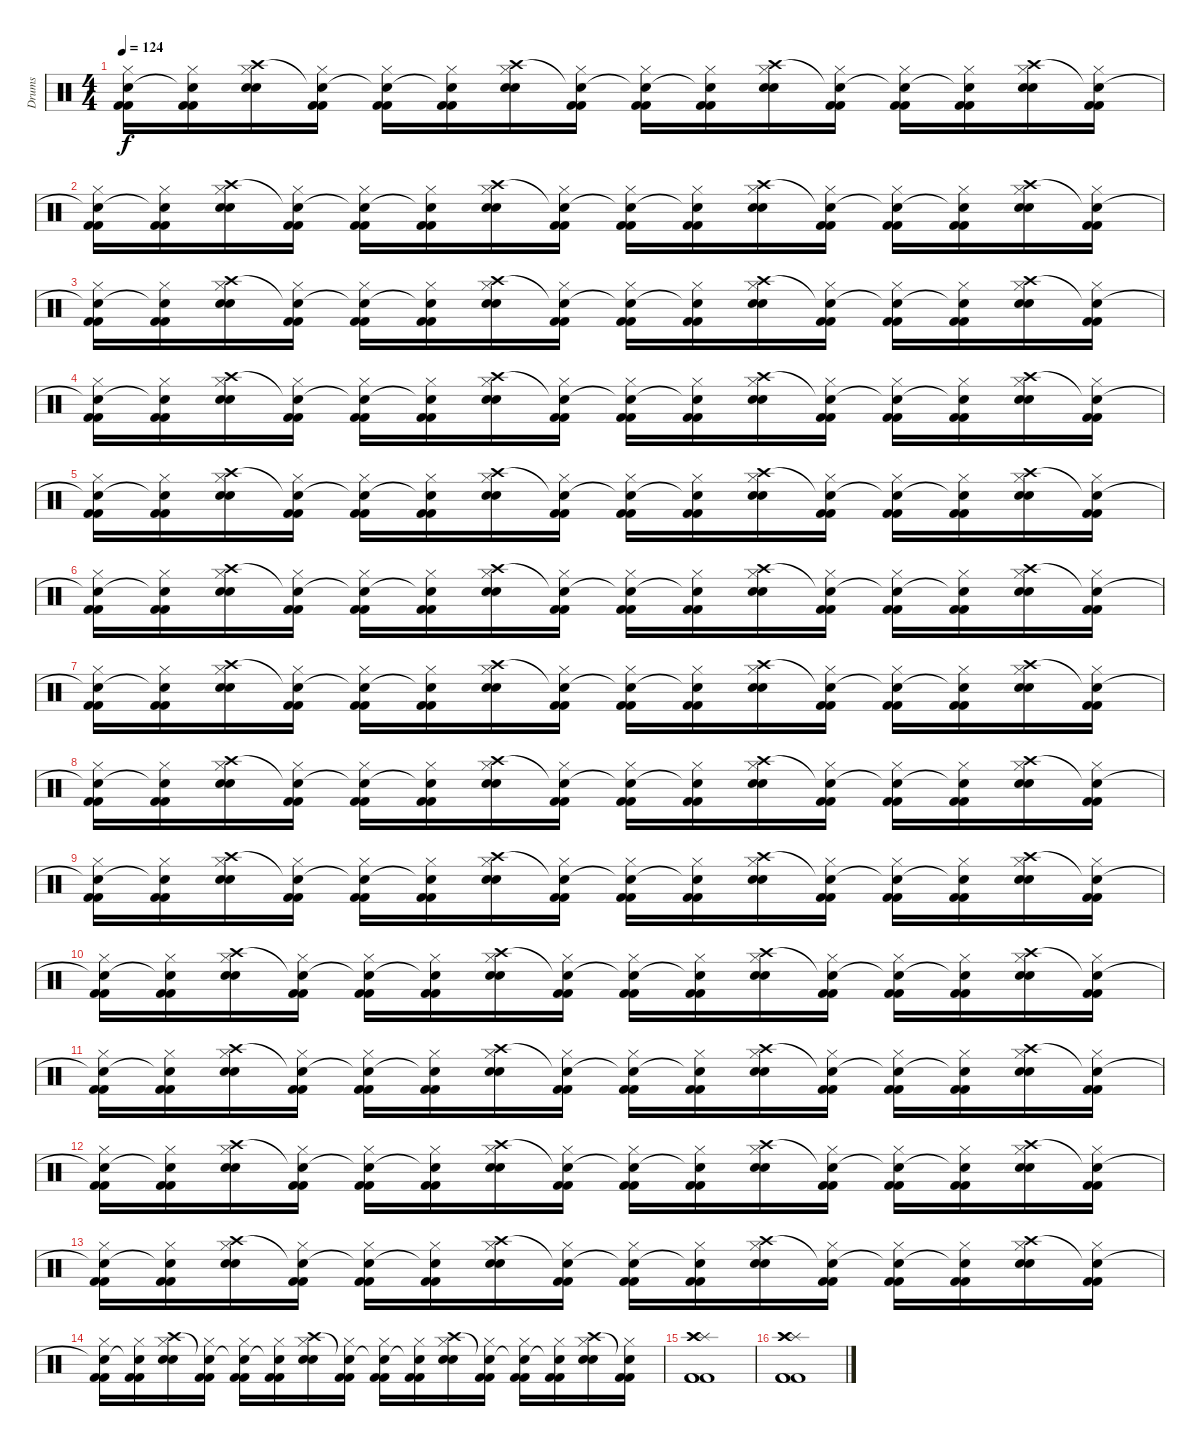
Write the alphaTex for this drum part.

\track ("Drums" "Drums") {instrument percussion}
\staff {score}
\articulation defaults
\ts (4 4)
\tempo 124
\clef neutral
\ks c
("Snare (hit)"{t} "Hi-Hat (closed)" "Kick (hit) 2" "Kick (hit) 2").16{dy f} ("Snare (hit)"{t} "Hi-Hat (closed)" "Kick (hit) 2" "Kick (hit) 2").16 ("Crash high (hit)" "Hi-Hat (closed)" "Snare (hit) 2" "Snare (hit) 2").16 ("Snare (hit)"{t} "Hi-Hat (closed)" "Kick (hit) 2" "Kick (hit) 2").16 ("Snare (hit)"{t} "Hi-Hat (closed)" "Kick (hit) 2" "Kick (hit) 2").16 ("Snare (hit)"{t} "Hi-Hat (closed)" "Kick (hit) 2" "Kick (hit) 2").16 ("Crash high (hit)" "Hi-Hat (closed)" "Snare (hit) 2" "Snare (hit) 2").16 ("Snare (hit)"{t} "Hi-Hat (closed)" "Kick (hit) 2" "Kick (hit) 2").16 ("Snare (hit)"{t} "Hi-Hat (closed)" "Kick (hit) 2" "Kick (hit) 2").16 ("Snare (hit)"{t} "Hi-Hat (closed)" "Kick (hit) 2" "Kick (hit) 2").16 ("Crash high (hit)" "Hi-Hat (closed)" "Snare (hit) 2" "Snare (hit) 2").16 ("Snare (hit)"{t} "Hi-Hat (closed)" "Kick (hit) 2" "Kick (hit) 2").16 ("Snare (hit)"{t} "Hi-Hat (closed)" "Kick (hit) 2" "Kick (hit) 2").16 ("Snare (hit)"{t} "Hi-Hat (closed)" "Kick (hit) 2" "Kick (hit) 2").16 ("Crash high (hit)" "Hi-Hat (closed)" "Snare (hit) 2" "Snare (hit) 2").16 ("Snare (hit)"{t} "Hi-Hat (closed)" "Kick (hit) 2" "Kick (hit) 2").16 |
("Snare (hit)"{t} "Hi-Hat (closed)" "Kick (hit) 2" "Kick (hit) 2").16 ("Snare (hit)"{t} "Hi-Hat (closed)" "Kick (hit) 2" "Kick (hit) 2").16 ("Crash high (hit)" "Hi-Hat (closed)" "Snare (hit) 2" "Snare (hit) 2").16 ("Snare (hit)"{t} "Hi-Hat (closed)" "Kick (hit) 2" "Kick (hit) 2").16 ("Snare (hit)"{t} "Hi-Hat (closed)" "Kick (hit) 2" "Kick (hit) 2").16 ("Snare (hit)"{t} "Hi-Hat (closed)" "Kick (hit) 2" "Kick (hit) 2").16 ("Crash high (hit)" "Hi-Hat (closed)" "Snare (hit) 2" "Snare (hit) 2").16 ("Snare (hit)"{t} "Hi-Hat (closed)" "Kick (hit) 2" "Kick (hit) 2").16 ("Snare (hit)"{t} "Hi-Hat (closed)" "Kick (hit) 2" "Kick (hit) 2").16 ("Snare (hit)"{t} "Hi-Hat (closed)" "Kick (hit) 2" "Kick (hit) 2").16 ("Crash high (hit)" "Hi-Hat (closed)" "Snare (hit) 2" "Snare (hit) 2").16 ("Snare (hit)"{t} "Hi-Hat (closed)" "Kick (hit) 2" "Kick (hit) 2").16 ("Snare (hit)"{t} "Hi-Hat (closed)" "Kick (hit) 2" "Kick (hit) 2").16 ("Snare (hit)"{t} "Hi-Hat (closed)" "Kick (hit) 2" "Kick (hit) 2").16 ("Crash high (hit)" "Hi-Hat (closed)" "Snare (hit) 2" "Snare (hit) 2").16 ("Snare (hit)"{t} "Hi-Hat (closed)" "Kick (hit) 2" "Kick (hit) 2").16 |
("Snare (hit)"{t} "Hi-Hat (closed)" "Kick (hit) 2" "Kick (hit) 2").16 ("Snare (hit)"{t} "Hi-Hat (closed)" "Kick (hit) 2" "Kick (hit) 2").16 ("Crash high (hit)" "Hi-Hat (closed)" "Snare (hit) 2" "Snare (hit) 2").16 ("Snare (hit)"{t} "Hi-Hat (closed)" "Kick (hit) 2" "Kick (hit) 2").16 ("Snare (hit)"{t} "Hi-Hat (closed)" "Kick (hit) 2" "Kick (hit) 2").16 ("Snare (hit)"{t} "Hi-Hat (closed)" "Kick (hit) 2" "Kick (hit) 2").16 ("Crash high (hit)" "Hi-Hat (closed)" "Snare (hit) 2" "Snare (hit) 2").16 ("Snare (hit)"{t} "Hi-Hat (closed)" "Kick (hit) 2" "Kick (hit) 2").16 ("Snare (hit)"{t} "Hi-Hat (closed)" "Kick (hit) 2" "Kick (hit) 2").16 ("Snare (hit)"{t} "Hi-Hat (closed)" "Kick (hit) 2" "Kick (hit) 2").16 ("Crash high (hit)" "Hi-Hat (closed)" "Snare (hit) 2" "Snare (hit) 2").16 ("Snare (hit)"{t} "Hi-Hat (closed)" "Kick (hit) 2" "Kick (hit) 2").16 ("Snare (hit)"{t} "Hi-Hat (closed)" "Kick (hit) 2" "Kick (hit) 2").16 ("Snare (hit)"{t} "Hi-Hat (closed)" "Kick (hit) 2" "Kick (hit) 2").16 ("Crash high (hit)" "Hi-Hat (closed)" "Snare (hit) 2" "Snare (hit) 2").16 ("Snare (hit)"{t} "Hi-Hat (closed)" "Kick (hit) 2" "Kick (hit) 2").16 |
("Snare (hit)"{t} "Hi-Hat (closed)" "Kick (hit) 2" "Kick (hit) 2").16 ("Snare (hit)"{t} "Hi-Hat (closed)" "Kick (hit) 2" "Kick (hit) 2").16 ("Crash high (hit)" "Hi-Hat (closed)" "Snare (hit) 2" "Snare (hit) 2").16 ("Snare (hit)"{t} "Hi-Hat (closed)" "Kick (hit) 2" "Kick (hit) 2").16 ("Snare (hit)"{t} "Hi-Hat (closed)" "Kick (hit) 2" "Kick (hit) 2").16 ("Snare (hit)"{t} "Hi-Hat (closed)" "Kick (hit) 2" "Kick (hit) 2").16 ("Crash high (hit)" "Hi-Hat (closed)" "Snare (hit) 2" "Snare (hit) 2").16 ("Snare (hit)"{t} "Hi-Hat (closed)" "Kick (hit) 2" "Kick (hit) 2").16 ("Snare (hit)"{t} "Hi-Hat (closed)" "Kick (hit) 2" "Kick (hit) 2").16 ("Snare (hit)"{t} "Hi-Hat (closed)" "Kick (hit) 2" "Kick (hit) 2").16 ("Crash high (hit)" "Hi-Hat (closed)" "Snare (hit) 2" "Snare (hit) 2").16 ("Snare (hit)"{t} "Hi-Hat (closed)" "Kick (hit) 2" "Kick (hit) 2").16 ("Snare (hit)"{t} "Hi-Hat (closed)" "Kick (hit) 2" "Kick (hit) 2").16 ("Snare (hit)"{t} "Hi-Hat (closed)" "Kick (hit) 2" "Kick (hit) 2").16 ("Crash high (hit)" "Hi-Hat (closed)" "Snare (hit) 2" "Snare (hit) 2").16 ("Snare (hit)"{t} "Hi-Hat (closed)" "Kick (hit) 2" "Kick (hit) 2").16 |
("Snare (hit)"{t} "Hi-Hat (closed)" "Kick (hit) 2" "Kick (hit) 2").16 ("Snare (hit)"{t} "Hi-Hat (closed)" "Kick (hit) 2" "Kick (hit) 2").16 ("Crash high (hit)" "Hi-Hat (closed)" "Snare (hit) 2" "Snare (hit) 2").16 ("Snare (hit)"{t} "Hi-Hat (closed)" "Kick (hit) 2" "Kick (hit) 2").16 ("Snare (hit)"{t} "Hi-Hat (closed)" "Kick (hit) 2" "Kick (hit) 2").16 ("Snare (hit)"{t} "Hi-Hat (closed)" "Kick (hit) 2" "Kick (hit) 2").16 ("Crash high (hit)" "Hi-Hat (closed)" "Snare (hit) 2" "Snare (hit) 2").16 ("Snare (hit)"{t} "Hi-Hat (closed)" "Kick (hit) 2" "Kick (hit) 2").16 ("Snare (hit)"{t} "Hi-Hat (closed)" "Kick (hit) 2" "Kick (hit) 2").16 ("Snare (hit)"{t} "Hi-Hat (closed)" "Kick (hit) 2" "Kick (hit) 2").16 ("Crash high (hit)" "Hi-Hat (closed)" "Snare (hit) 2" "Snare (hit) 2").16 ("Snare (hit)"{t} "Hi-Hat (closed)" "Kick (hit) 2" "Kick (hit) 2").16 ("Snare (hit)"{t} "Hi-Hat (closed)" "Kick (hit) 2" "Kick (hit) 2").16 ("Snare (hit)"{t} "Hi-Hat (closed)" "Kick (hit) 2" "Kick (hit) 2").16 ("Crash high (hit)" "Hi-Hat (closed)" "Snare (hit) 2" "Snare (hit) 2").16 ("Snare (hit)"{t} "Hi-Hat (closed)" "Kick (hit) 2" "Kick (hit) 2").16 |
("Snare (hit)"{t} "Hi-Hat (closed)" "Kick (hit) 2" "Kick (hit) 2").16 ("Snare (hit)"{t} "Hi-Hat (closed)" "Kick (hit) 2" "Kick (hit) 2").16 ("Crash high (hit)" "Hi-Hat (closed)" "Snare (hit) 2" "Snare (hit) 2").16 ("Snare (hit)"{t} "Hi-Hat (closed)" "Kick (hit) 2" "Kick (hit) 2").16 ("Snare (hit)"{t} "Hi-Hat (closed)" "Kick (hit) 2" "Kick (hit) 2").16 ("Snare (hit)"{t} "Hi-Hat (closed)" "Kick (hit) 2" "Kick (hit) 2").16 ("Crash high (hit)" "Hi-Hat (closed)" "Snare (hit) 2" "Snare (hit) 2").16 ("Snare (hit)"{t} "Hi-Hat (closed)" "Kick (hit) 2" "Kick (hit) 2").16 ("Snare (hit)"{t} "Hi-Hat (closed)" "Kick (hit) 2" "Kick (hit) 2").16 ("Snare (hit)"{t} "Hi-Hat (closed)" "Kick (hit) 2" "Kick (hit) 2").16 ("Crash high (hit)" "Hi-Hat (closed)" "Snare (hit) 2" "Snare (hit) 2").16 ("Snare (hit)"{t} "Hi-Hat (closed)" "Kick (hit) 2" "Kick (hit) 2").16 ("Snare (hit)"{t} "Hi-Hat (closed)" "Kick (hit) 2" "Kick (hit) 2").16 ("Snare (hit)"{t} "Hi-Hat (closed)" "Kick (hit) 2" "Kick (hit) 2").16 ("Crash high (hit)" "Hi-Hat (closed)" "Snare (hit) 2" "Snare (hit) 2").16 ("Snare (hit)"{t} "Hi-Hat (closed)" "Kick (hit) 2" "Kick (hit) 2").16 |
("Snare (hit)"{t} "Hi-Hat (closed)" "Kick (hit) 2" "Kick (hit) 2").16 ("Snare (hit)"{t} "Hi-Hat (closed)" "Kick (hit) 2" "Kick (hit) 2").16 ("Crash high (hit)" "Hi-Hat (closed)" "Snare (hit) 2" "Snare (hit) 2").16 ("Snare (hit)"{t} "Hi-Hat (closed)" "Kick (hit) 2" "Kick (hit) 2").16 ("Snare (hit)"{t} "Hi-Hat (closed)" "Kick (hit) 2" "Kick (hit) 2").16 ("Snare (hit)"{t} "Hi-Hat (closed)" "Kick (hit) 2" "Kick (hit) 2").16 ("Crash high (hit)" "Hi-Hat (closed)" "Snare (hit) 2" "Snare (hit) 2").16 ("Snare (hit)"{t} "Hi-Hat (closed)" "Kick (hit) 2" "Kick (hit) 2").16 ("Snare (hit)"{t} "Hi-Hat (closed)" "Kick (hit) 2" "Kick (hit) 2").16 ("Snare (hit)"{t} "Hi-Hat (closed)" "Kick (hit) 2" "Kick (hit) 2").16 ("Crash high (hit)" "Hi-Hat (closed)" "Snare (hit) 2" "Snare (hit) 2").16 ("Snare (hit)"{t} "Hi-Hat (closed)" "Kick (hit) 2" "Kick (hit) 2").16 ("Snare (hit)"{t} "Hi-Hat (closed)" "Kick (hit) 2" "Kick (hit) 2").16 ("Snare (hit)"{t} "Hi-Hat (closed)" "Kick (hit) 2" "Kick (hit) 2").16 ("Crash high (hit)" "Hi-Hat (closed)" "Snare (hit) 2" "Snare (hit) 2").16 ("Snare (hit)"{t} "Hi-Hat (closed)" "Kick (hit) 2" "Kick (hit) 2").16 |
("Snare (hit)"{t} "Hi-Hat (closed)" "Kick (hit) 2" "Kick (hit) 2").16 ("Snare (hit)"{t} "Hi-Hat (closed)" "Kick (hit) 2" "Kick (hit) 2").16 ("Crash high (hit)" "Hi-Hat (closed)" "Snare (hit) 2" "Snare (hit) 2").16 ("Snare (hit)"{t} "Hi-Hat (closed)" "Kick (hit) 2" "Kick (hit) 2").16 ("Snare (hit)"{t} "Hi-Hat (closed)" "Kick (hit) 2" "Kick (hit) 2").16 ("Snare (hit)"{t} "Hi-Hat (closed)" "Kick (hit) 2" "Kick (hit) 2").16 ("Crash high (hit)" "Hi-Hat (closed)" "Snare (hit) 2" "Snare (hit) 2").16 ("Snare (hit)"{t} "Hi-Hat (closed)" "Kick (hit) 2" "Kick (hit) 2").16 ("Snare (hit)"{t} "Hi-Hat (closed)" "Kick (hit) 2" "Kick (hit) 2").16 ("Snare (hit)"{t} "Hi-Hat (closed)" "Kick (hit) 2" "Kick (hit) 2").16 ("Crash high (hit)" "Hi-Hat (closed)" "Snare (hit) 2" "Snare (hit) 2").16 ("Snare (hit)"{t} "Hi-Hat (closed)" "Kick (hit) 2" "Kick (hit) 2").16 ("Snare (hit)"{t} "Hi-Hat (closed)" "Kick (hit) 2" "Kick (hit) 2").16 ("Snare (hit)"{t} "Hi-Hat (closed)" "Kick (hit) 2" "Kick (hit) 2").16 ("Crash high (hit)" "Hi-Hat (closed)" "Snare (hit) 2" "Snare (hit) 2").16 ("Snare (hit)"{t} "Hi-Hat (closed)" "Kick (hit) 2" "Kick (hit) 2").16 |
("Snare (hit)"{t} "Hi-Hat (closed)" "Kick (hit) 2" "Kick (hit) 2").16 ("Snare (hit)"{t} "Hi-Hat (closed)" "Kick (hit) 2" "Kick (hit) 2").16 ("Crash high (hit)" "Hi-Hat (closed)" "Snare (hit) 2" "Snare (hit) 2").16 ("Snare (hit)"{t} "Hi-Hat (closed)" "Kick (hit) 2" "Kick (hit) 2").16 ("Snare (hit)"{t} "Hi-Hat (closed)" "Kick (hit) 2" "Kick (hit) 2").16 ("Snare (hit)"{t} "Hi-Hat (closed)" "Kick (hit) 2" "Kick (hit) 2").16 ("Crash high (hit)" "Hi-Hat (closed)" "Snare (hit) 2" "Snare (hit) 2").16 ("Snare (hit)"{t} "Hi-Hat (closed)" "Kick (hit) 2" "Kick (hit) 2").16 ("Snare (hit)"{t} "Hi-Hat (closed)" "Kick (hit) 2" "Kick (hit) 2").16 ("Snare (hit)"{t} "Hi-Hat (closed)" "Kick (hit) 2" "Kick (hit) 2").16 ("Crash high (hit)" "Hi-Hat (closed)" "Snare (hit) 2" "Snare (hit) 2").16 ("Snare (hit)"{t} "Hi-Hat (closed)" "Kick (hit) 2" "Kick (hit) 2").16 ("Snare (hit)"{t} "Hi-Hat (closed)" "Kick (hit) 2" "Kick (hit) 2").16 ("Snare (hit)"{t} "Hi-Hat (closed)" "Kick (hit) 2" "Kick (hit) 2").16 ("Crash high (hit)" "Hi-Hat (closed)" "Snare (hit) 2" "Snare (hit) 2").16 ("Snare (hit)"{t} "Hi-Hat (closed)" "Kick (hit) 2" "Kick (hit) 2").16 |
("Snare (hit)"{t} "Hi-Hat (closed)" "Kick (hit) 2" "Kick (hit) 2").16 ("Snare (hit)"{t} "Hi-Hat (closed)" "Kick (hit) 2" "Kick (hit) 2").16 ("Crash high (hit)" "Hi-Hat (closed)" "Snare (hit) 2" "Snare (hit) 2").16 ("Snare (hit)"{t} "Hi-Hat (closed)" "Kick (hit) 2" "Kick (hit) 2").16 ("Snare (hit)"{t} "Hi-Hat (closed)" "Kick (hit) 2" "Kick (hit) 2").16 ("Snare (hit)"{t} "Hi-Hat (closed)" "Kick (hit) 2" "Kick (hit) 2").16 ("Crash high (hit)" "Hi-Hat (closed)" "Snare (hit) 2" "Snare (hit) 2").16 ("Snare (hit)"{t} "Hi-Hat (closed)" "Kick (hit) 2" "Kick (hit) 2").16 ("Snare (hit)"{t} "Hi-Hat (closed)" "Kick (hit) 2" "Kick (hit) 2").16 ("Snare (hit)"{t} "Hi-Hat (closed)" "Kick (hit) 2" "Kick (hit) 2").16 ("Crash high (hit)" "Hi-Hat (closed)" "Snare (hit) 2" "Snare (hit) 2").16 ("Snare (hit)"{t} "Hi-Hat (closed)" "Kick (hit) 2" "Kick (hit) 2").16 ("Snare (hit)"{t} "Hi-Hat (closed)" "Kick (hit) 2" "Kick (hit) 2").16 ("Snare (hit)"{t} "Hi-Hat (closed)" "Kick (hit) 2" "Kick (hit) 2").16 ("Crash high (hit)" "Hi-Hat (closed)" "Snare (hit) 2" "Snare (hit) 2").16 ("Snare (hit)"{t} "Hi-Hat (closed)" "Kick (hit) 2" "Kick (hit) 2").16 |
("Snare (hit)"{t} "Hi-Hat (closed)" "Kick (hit) 2" "Kick (hit) 2").16 ("Snare (hit)"{t} "Hi-Hat (closed)" "Kick (hit) 2" "Kick (hit) 2").16 ("Crash high (hit)" "Hi-Hat (closed)" "Snare (hit) 2" "Snare (hit) 2").16 ("Snare (hit)"{t} "Hi-Hat (closed)" "Kick (hit) 2" "Kick (hit) 2").16 ("Snare (hit)"{t} "Hi-Hat (closed)" "Kick (hit) 2" "Kick (hit) 2").16 ("Snare (hit)"{t} "Hi-Hat (closed)" "Kick (hit) 2" "Kick (hit) 2").16 ("Crash high (hit)" "Hi-Hat (closed)" "Snare (hit) 2" "Snare (hit) 2").16 ("Snare (hit)"{t} "Hi-Hat (closed)" "Kick (hit) 2" "Kick (hit) 2").16 ("Snare (hit)"{t} "Hi-Hat (closed)" "Kick (hit) 2" "Kick (hit) 2").16 ("Snare (hit)"{t} "Hi-Hat (closed)" "Kick (hit) 2" "Kick (hit) 2").16 ("Crash high (hit)" "Hi-Hat (closed)" "Snare (hit) 2" "Snare (hit) 2").16 ("Snare (hit)"{t} "Hi-Hat (closed)" "Kick (hit) 2" "Kick (hit) 2").16 ("Snare (hit)"{t} "Hi-Hat (closed)" "Kick (hit) 2" "Kick (hit) 2").16 ("Snare (hit)"{t} "Hi-Hat (closed)" "Kick (hit) 2" "Kick (hit) 2").16 ("Crash high (hit)" "Hi-Hat (closed)" "Snare (hit) 2" "Snare (hit) 2").16 ("Snare (hit)"{t} "Hi-Hat (closed)" "Kick (hit) 2" "Kick (hit) 2").16 |
("Snare (hit)"{t} "Hi-Hat (closed)" "Kick (hit) 2" "Kick (hit) 2").16 ("Snare (hit)"{t} "Hi-Hat (closed)" "Kick (hit) 2" "Kick (hit) 2").16 ("Crash high (hit)" "Hi-Hat (closed)" "Snare (hit) 2" "Snare (hit) 2").16 ("Snare (hit)"{t} "Hi-Hat (closed)" "Kick (hit) 2" "Kick (hit) 2").16 ("Snare (hit)"{t} "Hi-Hat (closed)" "Kick (hit) 2" "Kick (hit) 2").16 ("Snare (hit)"{t} "Hi-Hat (closed)" "Kick (hit) 2" "Kick (hit) 2").16 ("Crash high (hit)" "Hi-Hat (closed)" "Snare (hit) 2" "Snare (hit) 2").16 ("Snare (hit)"{t} "Hi-Hat (closed)" "Kick (hit) 2" "Kick (hit) 2").16 ("Snare (hit)"{t} "Hi-Hat (closed)" "Kick (hit) 2" "Kick (hit) 2").16 ("Snare (hit)"{t} "Hi-Hat (closed)" "Kick (hit) 2" "Kick (hit) 2").16 ("Crash high (hit)" "Hi-Hat (closed)" "Snare (hit) 2" "Snare (hit) 2").16 ("Snare (hit)"{t} "Hi-Hat (closed)" "Kick (hit) 2" "Kick (hit) 2").16 ("Snare (hit)"{t} "Hi-Hat (closed)" "Kick (hit) 2" "Kick (hit) 2").16 ("Snare (hit)"{t} "Hi-Hat (closed)" "Kick (hit) 2" "Kick (hit) 2").16 ("Crash high (hit)" "Hi-Hat (closed)" "Snare (hit) 2" "Snare (hit) 2").16 ("Snare (hit)"{t} "Hi-Hat (closed)" "Kick (hit) 2" "Kick (hit) 2").16 |
("Snare (hit)"{t} "Hi-Hat (closed)" "Kick (hit) 2" "Kick (hit) 2").16 ("Snare (hit)"{t} "Hi-Hat (closed)" "Kick (hit) 2" "Kick (hit) 2").16 ("Crash high (hit)" "Hi-Hat (closed)" "Snare (hit) 2" "Snare (hit) 2").16 ("Snare (hit)"{t} "Hi-Hat (closed)" "Kick (hit) 2" "Kick (hit) 2").16 ("Snare (hit)"{t} "Hi-Hat (closed)" "Kick (hit) 2" "Kick (hit) 2").16 ("Snare (hit)"{t} "Hi-Hat (closed)" "Kick (hit) 2" "Kick (hit) 2").16 ("Crash high (hit)" "Hi-Hat (closed)" "Snare (hit) 2" "Snare (hit) 2").16 ("Snare (hit)"{t} "Hi-Hat (closed)" "Kick (hit) 2" "Kick (hit) 2").16 ("Snare (hit)"{t} "Hi-Hat (closed)" "Kick (hit) 2" "Kick (hit) 2").16 ("Snare (hit)"{t} "Hi-Hat (closed)" "Kick (hit) 2" "Kick (hit) 2").16 ("Crash high (hit)" "Hi-Hat (closed)" "Snare (hit) 2" "Snare (hit) 2").16 ("Snare (hit)"{t} "Hi-Hat (closed)" "Kick (hit) 2" "Kick (hit) 2").16 ("Snare (hit)"{t} "Hi-Hat (closed)" "Kick (hit) 2" "Kick (hit) 2").16 ("Snare (hit)"{t} "Hi-Hat (closed)" "Kick (hit) 2" "Kick (hit) 2").16 ("Crash high (hit)" "Hi-Hat (closed)" "Snare (hit) 2" "Snare (hit) 2").16 ("Snare (hit)"{t} "Hi-Hat (closed)" "Kick (hit) 2" "Kick (hit) 2").16 |
("Snare (hit)"{t} "Hi-Hat (closed)" "Kick (hit) 2" "Kick (hit) 2").16 ("Snare (hit)"{t} "Hi-Hat (closed)" "Kick (hit) 2" "Kick (hit) 2").16 ("Crash high (hit)" "Hi-Hat (closed)" "Snare (hit) 2" "Snare (hit) 2").16 ("Snare (hit)"{t} "Hi-Hat (closed)" "Kick (hit) 2" "Kick (hit) 2").16 ("Snare (hit)"{t} "Hi-Hat (closed)" "Kick (hit) 2" "Kick (hit) 2").16 ("Snare (hit)"{t} "Hi-Hat (closed)" "Kick (hit) 2" "Kick (hit) 2").16 ("Crash high (hit)" "Hi-Hat (closed)" "Snare (hit) 2" "Snare (hit) 2").16 ("Snare (hit)"{t} "Hi-Hat (closed)" "Kick (hit) 2" "Kick (hit) 2").16 ("Snare (hit)"{t} "Hi-Hat (closed)" "Kick (hit) 2" "Kick (hit) 2").16 ("Snare (hit)"{t} "Hi-Hat (closed)" "Kick (hit) 2" "Kick (hit) 2").16 ("Crash high (hit)" "Hi-Hat (closed)" "Snare (hit) 2" "Snare (hit) 2").16 ("Snare (hit)"{t} "Hi-Hat (closed)" "Kick (hit) 2" "Kick (hit) 2").16 ("Snare (hit)"{t} "Hi-Hat (closed)" "Kick (hit) 2" "Kick (hit) 2").16 ("Snare (hit)"{t} "Hi-Hat (closed)" "Kick (hit) 2" "Kick (hit) 2").16 ("Crash high (hit)" "Hi-Hat (closed)" "Snare (hit) 2" "Snare (hit) 2").16 ("Snare (hit)"{t} "Hi-Hat (closed)" "Kick (hit) 2" "Kick (hit) 2").16 |
("Splash (hit)" "Crash high (hit)" "Crash high (hit)" "Kick (hit) 2" "Kick (hit) 2" "Kick (hit) 2").1 |
("Splash (hit)" "Crash high (hit)" "Crash high (hit)" "Kick (hit) 2" "Kick (hit) 2" "Kick (hit) 2").1
